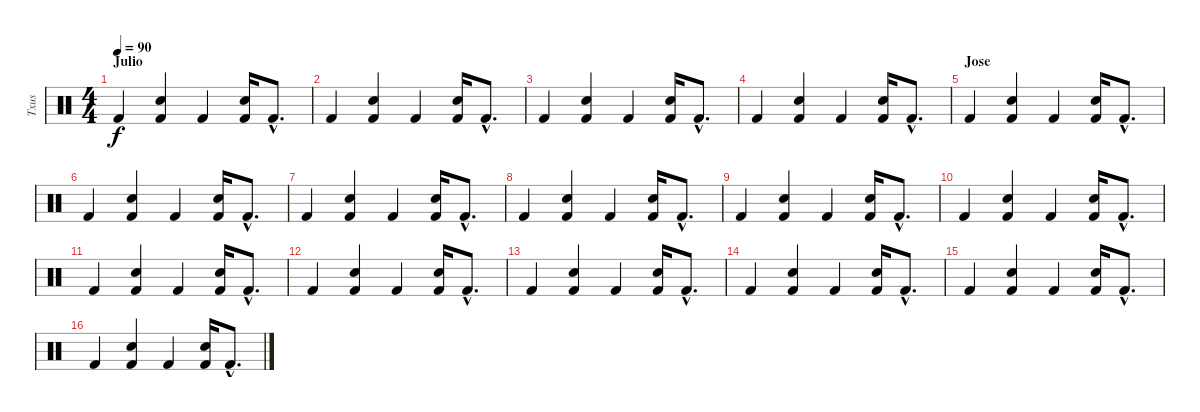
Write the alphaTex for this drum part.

\track ("Txus" "Txus") {instrument percussion}
\staff {score}
\articulation defaults
\ts (4 4)
\section ("" "Julio")
\tempo 90
\clef neutral
\ks c "Kick (hit) 2".4{dy f}
("Kick (hit) 2" "Electric Snare (hit)").4 "Kick (hit) 2".4 ("Kick (hit) 2" "Electric Snare (hit)").16 "Kick (hit) 2"{hac}.8{d} |
"Kick (hit) 2".4 ("Kick (hit) 2" "Electric Snare (hit)").4 "Kick (hit) 2".4 ("Kick (hit) 2" "Electric Snare (hit)").16 "Kick (hit) 2"{hac}.8{d} |
"Kick (hit) 2".4 ("Kick (hit) 2" "Electric Snare (hit)").4 "Kick (hit) 2".4 ("Kick (hit) 2" "Electric Snare (hit)").16 "Kick (hit) 2"{hac}.8{d} |
"Kick (hit) 2".4 ("Kick (hit) 2" "Electric Snare (hit)").4 "Kick (hit) 2".4 ("Kick (hit) 2" "Electric Snare (hit)").16 "Kick (hit) 2"{hac}.8{d} |
\section ("" "Jose")
"Kick (hit) 2".4 ("Kick (hit) 2" "Electric Snare (hit)").4 "Kick (hit) 2".4 ("Kick (hit) 2" "Electric Snare (hit)").16 "Kick (hit) 2"{hac}.8{d} |
"Kick (hit) 2".4 ("Kick (hit) 2" "Electric Snare (hit)").4 "Kick (hit) 2".4 ("Kick (hit) 2" "Electric Snare (hit)").16 "Kick (hit) 2"{hac}.8{d} |
"Kick (hit) 2".4 ("Kick (hit) 2" "Electric Snare (hit)").4 "Kick (hit) 2".4 ("Kick (hit) 2" "Electric Snare (hit)").16 "Kick (hit) 2"{hac}.8{d} |
"Kick (hit) 2".4 ("Kick (hit) 2" "Electric Snare (hit)").4 "Kick (hit) 2".4 ("Kick (hit) 2" "Electric Snare (hit)").16 "Kick (hit) 2"{hac}.8{d} |
"Kick (hit) 2".4 ("Kick (hit) 2" "Electric Snare (hit)").4 "Kick (hit) 2".4 ("Kick (hit) 2" "Electric Snare (hit)").16 "Kick (hit) 2"{hac}.8{d} |
"Kick (hit) 2".4 ("Kick (hit) 2" "Electric Snare (hit)").4 "Kick (hit) 2".4 ("Kick (hit) 2" "Electric Snare (hit)").16 "Kick (hit) 2"{hac}.8{d} |
"Kick (hit) 2".4 ("Kick (hit) 2" "Electric Snare (hit)").4 "Kick (hit) 2".4 ("Kick (hit) 2" "Electric Snare (hit)").16 "Kick (hit) 2"{hac}.8{d} |
"Kick (hit) 2".4 ("Kick (hit) 2" "Electric Snare (hit)").4 "Kick (hit) 2".4 ("Kick (hit) 2" "Electric Snare (hit)").16 "Kick (hit) 2"{hac}.8{d} |
"Kick (hit) 2".4 ("Kick (hit) 2" "Electric Snare (hit)").4 "Kick (hit) 2".4 ("Kick (hit) 2" "Electric Snare (hit)").16 "Kick (hit) 2"{hac}.8{d} |
"Kick (hit) 2".4 ("Kick (hit) 2" "Electric Snare (hit)").4 "Kick (hit) 2".4 ("Kick (hit) 2" "Electric Snare (hit)").16 "Kick (hit) 2"{hac}.8{d} |
"Kick (hit) 2".4 ("Kick (hit) 2" "Electric Snare (hit)").4 "Kick (hit) 2".4 ("Kick (hit) 2" "Electric Snare (hit)").16 "Kick (hit) 2"{hac}.8{d} |
"Kick (hit) 2".4 ("Kick (hit) 2" "Electric Snare (hit)").4 "Kick (hit) 2".4 ("Kick (hit) 2" "Electric Snare (hit)").16 "Kick (hit) 2"{hac}.8{d}
